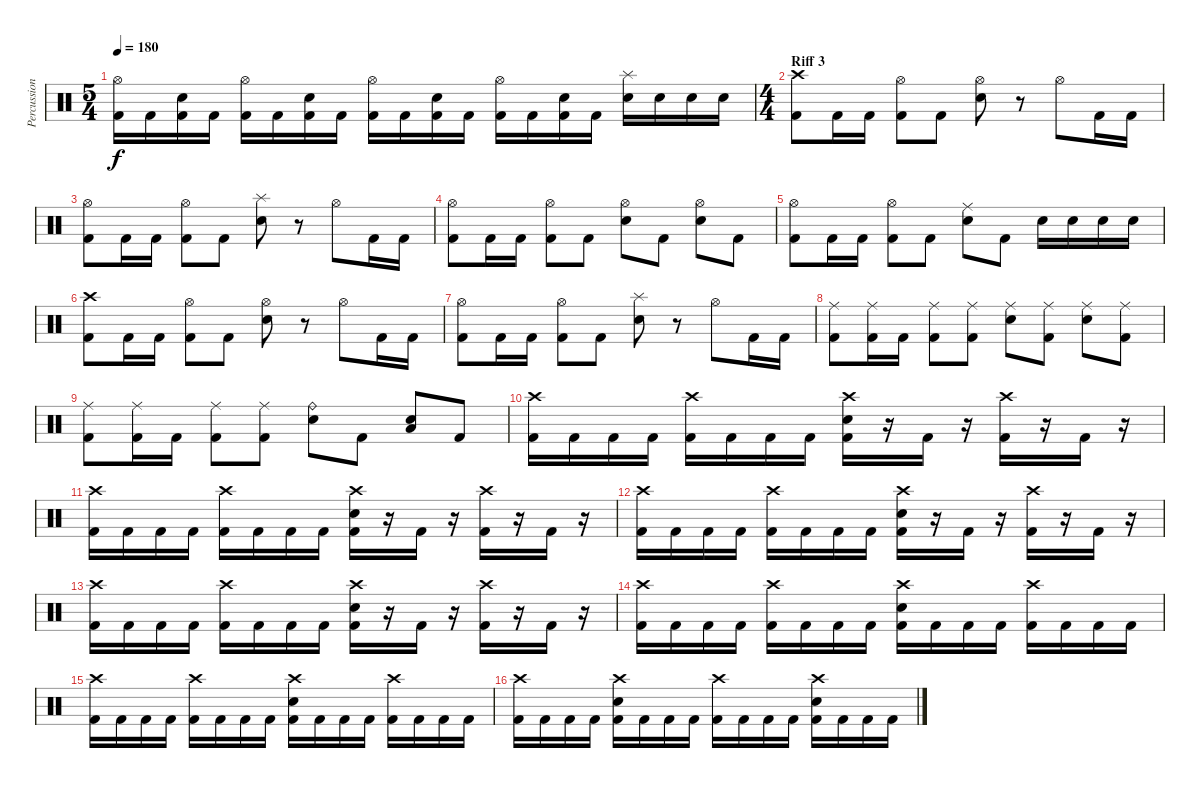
\track ("Percussion" "Percussion") {instrument percussion}
\staff {score}
\articulation defaults
\ts (5 4)
\tempo 180
\clef neutral
\ks c
("Hi-Hat (open)" "Kick (hit) 2").16{dy f} "Kick (hit) 2".16 ("Electric Snare (hit)" "Kick (hit) 2").16 "Kick (hit) 2".16 ("Hi-Hat (open)" "Kick (hit) 2").16 "Kick (hit) 2".16 ("Electric Snare (hit)" "Kick (hit) 2").16 "Kick (hit) 2".16 ("Hi-Hat (open)" "Kick (hit) 2").16 "Kick (hit) 2".16 ("Electric Snare (hit)" "Kick (hit) 2").16 "Kick (hit) 2".16 ("Hi-Hat (open)" "Kick (hit) 2").16 "Kick (hit) 2".16 ("Electric Snare (hit)" "Kick (hit) 2").16 "Kick (hit) 2".16 ("Splash (hit)" "Electric Snare (hit)").16 "Electric Snare (hit)".16 "Electric Snare (hit)".16 "Electric Snare (hit)".16 |
\ts (4 4)
\section ("" "Riff 3")
("Crash high (hit)" "Kick (hit) 2").8 "Kick (hit) 2".16 "Kick (hit) 2".16 ("Hi-Hat (open)" "Kick (hit) 2").8 "Kick (hit) 2".8 ("Hi-Hat (open)" "Electric Snare (hit)").8 r.8 "Hi-Hat (open)".8 "Kick (hit) 2".16 "Kick (hit) 2".16 |
("Hi-Hat (open)" "Kick (hit) 2").8 "Kick (hit) 2".16 "Kick (hit) 2".16 ("Hi-Hat (open)" "Kick (hit) 2").8 "Kick (hit) 2".8 ("Splash (hit)" "Electric Snare (hit)").8 r.8 "Hi-Hat (open)".8 "Kick (hit) 2".16 "Kick (hit) 2".16 |
("Hi-Hat (open)" "Kick (hit) 2").8 "Kick (hit) 2".16 "Kick (hit) 2".16 ("Hi-Hat (open)" "Kick (hit) 2").8 "Kick (hit) 2".8 ("Hi-Hat (open)" "Electric Snare (hit)").8 "Kick (hit) 2".8 ("Hi-Hat (open)" "Electric Snare (hit)").8 "Kick (hit) 2".8 |
("Hi-Hat (open)" "Kick (hit) 2").8 "Kick (hit) 2".16 "Kick (hit) 2".16 ("Hi-Hat (open)" "Kick (hit) 2").8 "Kick (hit) 2".8 ("Ride (middle)" "Electric Snare (hit)").8 "Kick (hit) 2".8 "Electric Snare (hit)".16 "Electric Snare (hit)".16 "Electric Snare (hit)".16 "Electric Snare (hit)".16 |
("Crash high (hit)" "Kick (hit) 2").8 "Kick (hit) 2".16 "Kick (hit) 2".16 ("Hi-Hat (open)" "Kick (hit) 2").8 "Kick (hit) 2".8 ("Hi-Hat (open)" "Electric Snare (hit)").8 r.8 "Hi-Hat (open)".8 "Kick (hit) 2".16 "Kick (hit) 2".16 |
("Hi-Hat (open)" "Kick (hit) 2").8 "Kick (hit) 2".16 "Kick (hit) 2".16 ("Hi-Hat (open)" "Kick (hit) 2").8 "Kick (hit) 2".8 ("Splash (hit)" "Electric Snare (hit)").8 r.8 "Hi-Hat (open)".8 "Kick (hit) 2".16 "Kick (hit) 2".16 |
("Ride (middle)" "Kick (hit) 2").8 ("Ride (middle)" "Kick (hit) 2").16 "Kick (hit) 2".16 ("Ride (middle)" "Kick (hit) 2").8 ("Ride (middle)" "Kick (hit) 2").8 ("Ride (middle)" "Electric Snare (hit)").8 ("Ride (middle)" "Kick (hit) 2").8 ("Ride (middle)" "Electric Snare (hit)").8 ("Ride (middle)" "Kick (hit) 2").8 |
("Ride (middle)" "Kick (hit) 2").8 ("Ride (middle)" "Kick (hit) 2").16 "Kick (hit) 2".16 ("Ride (middle)" "Kick (hit) 2").8 ("Ride (middle)" "Kick (hit) 2").8 ("Ride (bell)" "Electric Snare (hit)").8 "Kick (hit) 2".8 ("Electric Snare (hit)" "Low Floor Tom (hit)").8 "Kick (hit) 2".8 |
("Crash high (hit)" "Kick (hit) 2").16 "Kick (hit) 2".16 "Kick (hit) 2".16 "Kick (hit) 2".16 ("Crash high (hit)" "Kick (hit) 2").16 "Kick (hit) 2".16 "Kick (hit) 2".16 "Kick (hit) 2".16 ("Crash high (hit)" "Electric Snare (hit)" "Kick (hit) 2").16 r.16 "Kick (hit) 2".16 r.16 ("Crash high (hit)" "Kick (hit) 2").16 r.16 "Kick (hit) 2".16 r.16 |
("Crash high (hit)" "Kick (hit) 2").16 "Kick (hit) 2".16 "Kick (hit) 2".16 "Kick (hit) 2".16 ("Crash high (hit)" "Kick (hit) 2").16 "Kick (hit) 2".16 "Kick (hit) 2".16 "Kick (hit) 2".16 ("Crash high (hit)" "Electric Snare (hit)" "Kick (hit) 2").16 r.16 "Kick (hit) 2".16 r.16 ("Crash high (hit)" "Kick (hit) 2").16 r.16 "Kick (hit) 2".16 r.16 |
("Crash high (hit)" "Kick (hit) 2").16 "Kick (hit) 2".16 "Kick (hit) 2".16 "Kick (hit) 2".16 ("Crash high (hit)" "Kick (hit) 2").16 "Kick (hit) 2".16 "Kick (hit) 2".16 "Kick (hit) 2".16 ("Crash high (hit)" "Electric Snare (hit)" "Kick (hit) 2").16 r.16 "Kick (hit) 2".16 r.16 ("Crash high (hit)" "Kick (hit) 2").16 r.16 "Kick (hit) 2".16 r.16 |
("Crash high (hit)" "Kick (hit) 2").16 "Kick (hit) 2".16 "Kick (hit) 2".16 "Kick (hit) 2".16 ("Crash high (hit)" "Kick (hit) 2").16 "Kick (hit) 2".16 "Kick (hit) 2".16 "Kick (hit) 2".16 ("Crash high (hit)" "Electric Snare (hit)" "Kick (hit) 2").16 r.16 "Kick (hit) 2".16 r.16 ("Crash high (hit)" "Kick (hit) 2").16 r.16 "Kick (hit) 2".16 r.16 |
("Crash high (hit)" "Kick (hit) 2").16 "Kick (hit) 2".16 "Kick (hit) 2".16 "Kick (hit) 2".16 ("Crash high (hit)" "Kick (hit) 2").16 "Kick (hit) 2".16 "Kick (hit) 2".16 "Kick (hit) 2".16 ("Crash high (hit)" "Electric Snare (hit)" "Kick (hit) 2").16 "Kick (hit) 2".16 "Kick (hit) 2".16 "Kick (hit) 2".16 ("Crash high (hit)" "Kick (hit) 2").16 "Kick (hit) 2".16 "Kick (hit) 2".16 "Kick (hit) 2".16 |
("Crash high (hit)" "Kick (hit) 2").16 "Kick (hit) 2".16 "Kick (hit) 2".16 "Kick (hit) 2".16 ("Crash high (hit)" "Kick (hit) 2").16 "Kick (hit) 2".16 "Kick (hit) 2".16 "Kick (hit) 2".16 ("Crash high (hit)" "Electric Snare (hit)" "Kick (hit) 2").16 "Kick (hit) 2".16 "Kick (hit) 2".16 "Kick (hit) 2".16 ("Crash high (hit)" "Kick (hit) 2").16 "Kick (hit) 2".16 "Kick (hit) 2".16 "Kick (hit) 2".16 |
("Crash high (hit)" "Kick (hit) 2").16 "Kick (hit) 2".16 "Kick (hit) 2".16 "Kick (hit) 2".16 ("Crash high (hit)" "Electric Snare (hit)" "Kick (hit) 2").16 "Kick (hit) 2".16 "Kick (hit) 2".16 "Kick (hit) 2".16 ("Crash high (hit)" "Kick (hit) 2").16 "Kick (hit) 2".16 "Kick (hit) 2".16 "Kick (hit) 2".16 ("Crash high (hit)" "Electric Snare (hit)" "Kick (hit) 2").16 "Kick (hit) 2".16 "Kick (hit) 2".16 "Kick (hit) 2".16
